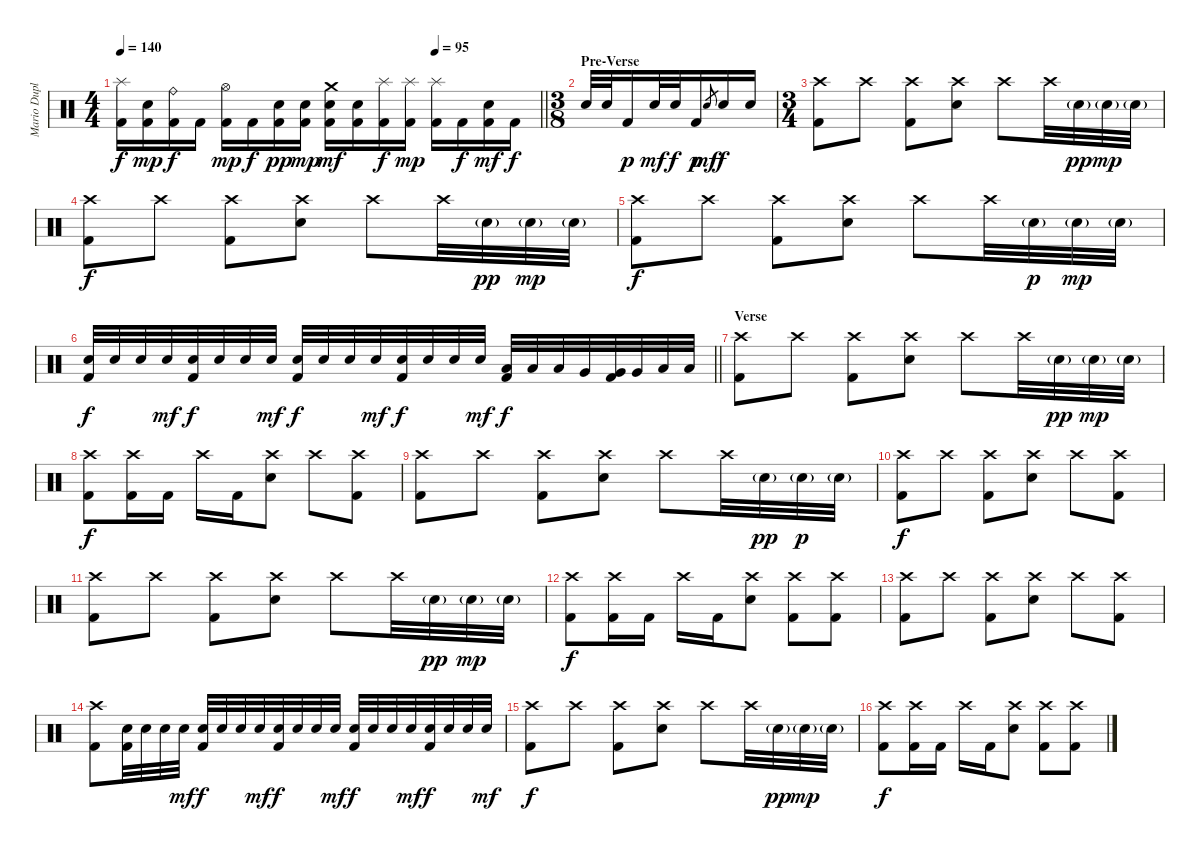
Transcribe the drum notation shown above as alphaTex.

\track ("Mario Duplantier" "Mario Dupl") {instrument percussion}
\staff {score}
\articulation defaults
\ts (4 4)
\tempo 140
\tempo (95 0.75)
\clef neutral
\barLineRight lightlight
\ks c
("Splash (hit)" "Kick (hit) 2").16{dy f} ("Snare (hit) 2" "Kick (hit) 2").16{dy mp} ("Ride (bell)" "Kick (hit) 2").16{dy f} "Kick (hit) 2".16 ("Hi-Hat (open)" "Kick (hit) 2").16{dy mp} "Kick (hit) 2".16{dy f} ("Snare (hit) 2" "Kick (hit) 2").16{dy pp} ("Snare (hit) 2" "Kick (hit) 2").16{dy mp} ("Crash medium (hit)" "Snare (hit) 2" "Kick (hit) 2").16{dy mf} ("Snare (hit) 2" "Kick (hit) 2").16 ("Splash (hit)" "Kick (hit) 2").16{dy f} ("Splash (hit)" "Kick (hit) 2").16{dy mp} ("Splash (hit)" "Kick (hit) 2").16 "Kick (hit) 2".16{dy f} ("Snare (hit) 2" "Kick (hit) 2").16{dy mf} "Kick (hit) 2".16{dy f} |
\ts (3 8)
\section ("" "Pre-Verse")
"Snare (hit) 2".32 "Snare (hit) 2".32 "Kick (hit) 2".16{dy p} "Snare (hit) 2".32{dy mf} "Snare (hit) 2".32{dy f} "Kick (hit) 2".16{dy p} "Snare (hit) 2".8{gr dy mf} "Snare (hit) 2".16{dy f} "Snare (hit) 2".16 |
\ts (3 4)
("Crash high (hit)" "Kick (hit) 2").8 "Crash high (hit)".8 ("Crash high (hit)" "Kick (hit) 2").8 ("Crash high (hit)" "Snare (hit) 2").8 "Crash high (hit)".8 "Crash high (hit)".32 "Snare (hit) 2"{g}.32{dy pp} "Snare (hit) 2"{g}.32{dy mp} "Snare (hit) 2"{g}.32 |
("Crash high (hit)" "Kick (hit) 2").8{dy f} "Crash high (hit)".8 ("Crash high (hit)" "Kick (hit) 2").8 ("Crash high (hit)" "Snare (hit) 2").8 "Crash high (hit)".8 "Crash high (hit)".32 "Snare (hit) 2"{g}.32{dy pp} "Snare (hit) 2"{g}.32{dy mp} "Snare (hit) 2"{g}.32 |
("Crash high (hit)" "Kick (hit) 2").8{dy f} "Crash high (hit)".8 ("Crash high (hit)" "Kick (hit) 2").8 ("Crash high (hit)" "Snare (hit) 2").8 "Crash high (hit)".8 "Crash high (hit)".32 "Snare (hit) 2"{g}.32{dy p} "Snare (hit) 2"{g}.32{dy mp} "Snare (hit) 2"{g}.32 |
\barLineRight lightlight
("Snare (hit) 2" "Kick (hit) 2").32{dy f} "Snare (hit) 2".32 "Snare (hit) 2".32 "Snare (hit) 2".32{dy mf} ("Snare (hit) 2" "Kick (hit) 2").32{dy f} "Snare (hit) 2".32 "Snare (hit) 2".32 "Snare (hit) 2".32{dy mf} ("Snare (hit) 2" "Kick (hit) 2").32{dy f} "Snare (hit) 2".32 "Snare (hit) 2".32 "Snare (hit) 2".32{dy mf} ("Snare (hit) 2" "Kick (hit) 2").32{dy f} "Snare (hit) 2".32 "Snare (hit) 2".32 "Snare (hit) 2".32{dy mf} ("Low Tom (hit)" "Kick (hit) 2").32{dy f} "Low Tom (hit)".32 "Low Tom (hit)".32 "Very Low Tom (hit)".32 ("Very Low Tom (hit)" "Kick (hit) 2").32 "Very Low Tom (hit)".32 "Low Floor Tom (hit)".32 "Low Floor Tom (hit)".32 |
\section ("" "Verse")
("Crash high (hit)" "Kick (hit) 2").8 "Crash high (hit)".8 ("Crash high (hit)" "Kick (hit) 2").8 ("Crash high (hit)" "Snare (hit) 2").8 "Crash high (hit)".8 "Crash high (hit)".32 "Snare (hit) 2"{g}.32{dy pp} "Snare (hit) 2"{g}.32{dy mp} "Snare (hit) 2"{g}.32 |
("Crash high (hit)" "Kick (hit) 2").8{dy f} ("Crash high (hit)" "Kick (hit) 2").16 "Kick (hit) 2".16 "Crash high (hit)".16 "Kick (hit) 2".16 ("Crash high (hit)" "Snare (hit) 2").8 "Crash high (hit)".8 ("Crash high (hit)" "Kick (hit) 2").8 |
("Crash high (hit)" "Kick (hit) 2").8 "Crash high (hit)".8 ("Crash high (hit)" "Kick (hit) 2").8 ("Crash high (hit)" "Snare (hit) 2").8 "Crash high (hit)".8 "Crash high (hit)".32 "Snare (hit) 2"{g}.32{dy pp} "Snare (hit) 2"{g}.32{dy p} "Snare (hit) 2"{g}.32 |
("Crash high (hit)" "Kick (hit) 2").8{dy f} "Crash high (hit)".8 ("Crash high (hit)" "Kick (hit) 2").8 ("Crash high (hit)" "Snare (hit) 2").8 "Crash high (hit)".8 ("Crash high (hit)" "Kick (hit) 2").8 |
("Crash high (hit)" "Kick (hit) 2").8 "Crash high (hit)".8 ("Crash high (hit)" "Kick (hit) 2").8 ("Crash high (hit)" "Snare (hit) 2").8 "Crash high (hit)".8 "Crash high (hit)".32 "Snare (hit) 2"{g}.32{dy pp} "Snare (hit) 2"{g}.32{dy mp} "Snare (hit) 2"{g}.32 |
("Crash high (hit)" "Kick (hit) 2").8{dy f} ("Crash high (hit)" "Kick (hit) 2").16 "Kick (hit) 2".16 "Crash high (hit)".16 "Kick (hit) 2".16 ("Crash high (hit)" "Snare (hit) 2").8 ("Crash high (hit)" "Kick (hit) 2").8 ("Crash high (hit)" "Kick (hit) 2").8 |
("Crash high (hit)" "Kick (hit) 2").8 "Crash high (hit)".8 ("Crash high (hit)" "Kick (hit) 2").8 ("Crash high (hit)" "Snare (hit) 2").8 "Crash high (hit)".8 ("Crash high (hit)" "Kick (hit) 2").8 |
("Crash high (hit)" "Kick (hit) 2").8 ("Snare (hit) 2" "Kick (hit) 2").32 "Snare (hit) 2".32 "Snare (hit) 2".32 "Snare (hit) 2".32{dy mf} ("Snare (hit) 2" "Kick (hit) 2").32{dy f} "Snare (hit) 2".32 "Snare (hit) 2".32 "Snare (hit) 2".32{dy mf} ("Snare (hit) 2" "Kick (hit) 2").32{dy f} "Snare (hit) 2".32 "Snare (hit) 2".32 "Snare (hit) 2".32{dy mf} ("Snare (hit) 2" "Kick (hit) 2").32{dy f} "Snare (hit) 2".32 "Snare (hit) 2".32 "Snare (hit) 2".32{dy mf} ("Snare (hit) 2" "Kick (hit) 2").32{dy f} "Snare (hit) 2".32 "Snare (hit) 2".32 "Snare (hit) 2".32{dy mf} |
("Crash high (hit)" "Kick (hit) 2").8{dy f} "Crash high (hit)".8 ("Crash high (hit)" "Kick (hit) 2").8 ("Crash high (hit)" "Snare (hit) 2").8 "Crash high (hit)".8 "Crash high (hit)".32 "Snare (hit) 2"{g}.32{dy pp} "Snare (hit) 2"{g}.32{dy mp} "Snare (hit) 2"{g}.32 |
("Crash high (hit)" "Kick (hit) 2").8{dy f} ("Crash high (hit)" "Kick (hit) 2").16 "Kick (hit) 2".16 "Crash high (hit)".16 "Kick (hit) 2".16 ("Crash high (hit)" "Snare (hit) 2").8 ("Crash high (hit)" "Kick (hit) 2").8 ("Crash high (hit)" "Kick (hit) 2").8
